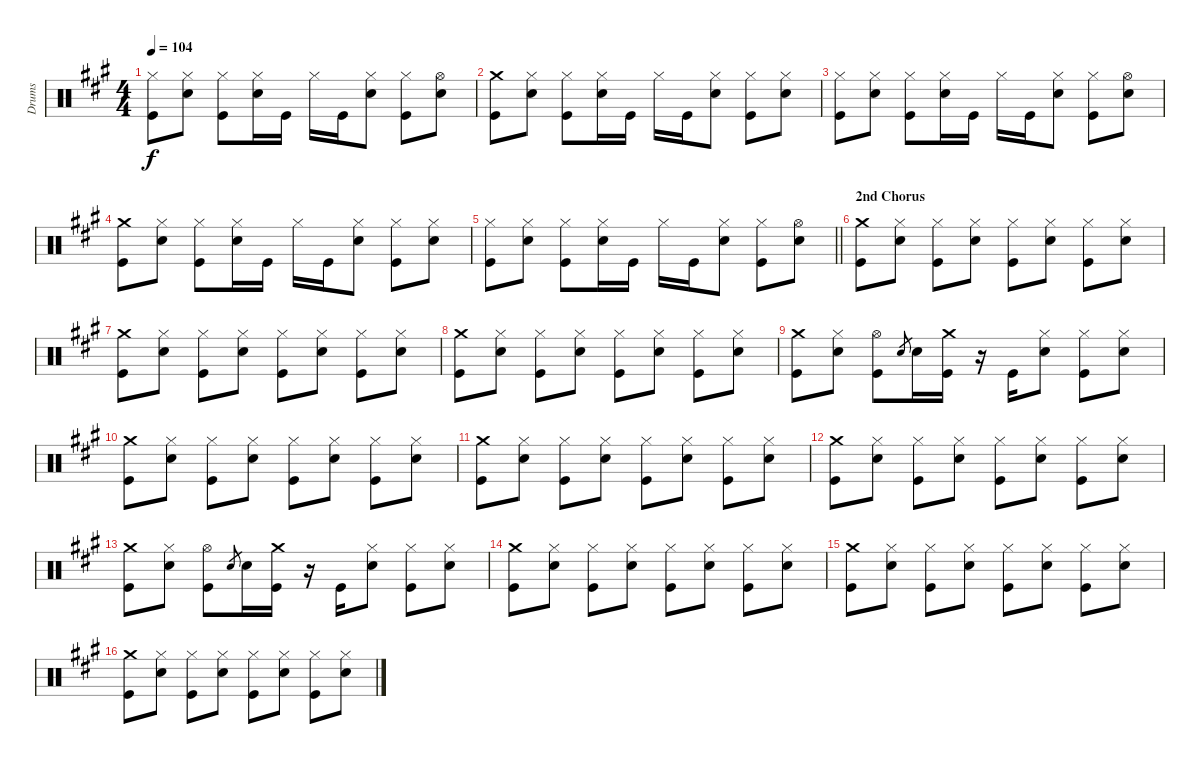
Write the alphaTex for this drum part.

\track ("Drums" "Drums") {instrument percussion}
\staff {score}
\articulation defaults
\ts (4 4)
\tempo 104
\clef neutral
\ks a
("Hi-Hat (closed)" "Kick (hit)").8{dy f} ("Hi-Hat (closed)" "Electric Snare (hit)").8 ("Hi-Hat (closed)" "Kick (hit)").8 ("Hi-Hat (closed)" "Electric Snare (hit)").16 "Kick (hit)".16 "Hi-Hat (closed)".16 "Kick (hit)".16 ("Hi-Hat (closed)" "Electric Snare (hit)").8 ("Hi-Hat (closed)" "Kick (hit)").8 ("Hi-Hat (open)" "Electric Snare (hit)").8 |
("Crash medium (hit)" "Kick (hit)").8 ("Hi-Hat (closed)" "Electric Snare (hit)").8 ("Hi-Hat (closed)" "Kick (hit)").8 ("Hi-Hat (closed)" "Electric Snare (hit)").16 "Kick (hit)".16 "Hi-Hat (closed)".16 "Kick (hit)".16 ("Hi-Hat (closed)" "Electric Snare (hit)").8 ("Hi-Hat (closed)" "Kick (hit)").8 ("Hi-Hat (closed)" "Electric Snare (hit)").8 |
("Hi-Hat (closed)" "Kick (hit)").8 ("Hi-Hat (closed)" "Electric Snare (hit)").8 ("Hi-Hat (closed)" "Kick (hit)").8 ("Hi-Hat (closed)" "Electric Snare (hit)").16 "Kick (hit)".16 "Hi-Hat (closed)".16 "Kick (hit)".16 ("Hi-Hat (closed)" "Electric Snare (hit)").8 ("Hi-Hat (closed)" "Kick (hit)").8 ("Hi-Hat (open)" "Electric Snare (hit)").8 |
("Crash medium (hit)" "Kick (hit)").8 ("Hi-Hat (closed)" "Electric Snare (hit)").8 ("Hi-Hat (closed)" "Kick (hit)").8 ("Hi-Hat (closed)" "Electric Snare (hit)").16 "Kick (hit)".16 "Hi-Hat (closed)".16 "Kick (hit)".16 ("Hi-Hat (closed)" "Electric Snare (hit)").8 ("Hi-Hat (closed)" "Kick (hit)").8 ("Hi-Hat (closed)" "Electric Snare (hit)").8 |
\barLineRight lightlight
("Hi-Hat (closed)" "Kick (hit)").8 ("Hi-Hat (closed)" "Electric Snare (hit)").8 ("Hi-Hat (closed)" "Kick (hit)").8 ("Hi-Hat (closed)" "Electric Snare (hit)").16 "Kick (hit)".16 "Hi-Hat (closed)".16 "Kick (hit)".16 ("Hi-Hat (closed)" "Electric Snare (hit)").8 ("Hi-Hat (closed)" "Kick (hit)").8 ("Hi-Hat (open)" "Electric Snare (hit)").8 |
\section ("" "2nd Chorus")
("Crash medium (hit)" "Kick (hit)").8 ("Hi-Hat (closed)" "Electric Snare (hit)").8 ("Hi-Hat (closed)" "Kick (hit)").8 ("Hi-Hat (closed)" "Electric Snare (hit)").8 ("Hi-Hat (closed)" "Kick (hit)").8 ("Hi-Hat (closed)" "Electric Snare (hit)").8 ("Hi-Hat (closed)" "Kick (hit)").8 ("Hi-Hat (closed)" "Electric Snare (hit)").8 |
("Crash medium (hit)" "Kick (hit)").8 ("Hi-Hat (closed)" "Electric Snare (hit)").8 ("Hi-Hat (closed)" "Kick (hit)").8 ("Hi-Hat (closed)" "Electric Snare (hit)").8 ("Hi-Hat (closed)" "Kick (hit)").8 ("Hi-Hat (closed)" "Electric Snare (hit)").8 ("Hi-Hat (closed)" "Kick (hit)").8 ("Hi-Hat (closed)" "Electric Snare (hit)").8 |
("Crash medium (hit)" "Kick (hit)").8 ("Hi-Hat (closed)" "Electric Snare (hit)").8 ("Hi-Hat (closed)" "Kick (hit)").8 ("Hi-Hat (closed)" "Electric Snare (hit)").8 ("Hi-Hat (closed)" "Kick (hit)").8 ("Hi-Hat (closed)" "Electric Snare (hit)").8 ("Hi-Hat (closed)" "Kick (hit)").8 ("Hi-Hat (closed)" "Electric Snare (hit)").8 |
("Crash medium (hit)" "Kick (hit)").8 ("Hi-Hat (closed)" "Electric Snare (hit)").8 ("Hi-Hat (open)" "Kick (hit)").8 "Electric Snare (hit)".8{gr} "Electric Snare (hit)".16 ("Crash medium (hit)" "Kick (hit)").16 r.16 "Kick (hit)".16 ("Hi-Hat (closed)" "Electric Snare (hit)").8 ("Hi-Hat (closed)" "Kick (hit)").8 ("Hi-Hat (closed)" "Electric Snare (hit)").8 |
("Crash medium (hit)" "Kick (hit)").8 ("Hi-Hat (closed)" "Electric Snare (hit)").8 ("Hi-Hat (closed)" "Kick (hit)").8 ("Hi-Hat (closed)" "Electric Snare (hit)").8 ("Hi-Hat (closed)" "Kick (hit)").8 ("Hi-Hat (closed)" "Electric Snare (hit)").8 ("Hi-Hat (closed)" "Kick (hit)").8 ("Hi-Hat (closed)" "Electric Snare (hit)").8 |
("Crash medium (hit)" "Kick (hit)").8 ("Hi-Hat (closed)" "Electric Snare (hit)").8 ("Hi-Hat (closed)" "Kick (hit)").8 ("Hi-Hat (closed)" "Electric Snare (hit)").8 ("Hi-Hat (closed)" "Kick (hit)").8 ("Hi-Hat (closed)" "Electric Snare (hit)").8 ("Hi-Hat (closed)" "Kick (hit)").8 ("Hi-Hat (closed)" "Electric Snare (hit)").8 |
("Crash medium (hit)" "Kick (hit)").8 ("Hi-Hat (closed)" "Electric Snare (hit)").8 ("Hi-Hat (closed)" "Kick (hit)").8 ("Hi-Hat (closed)" "Electric Snare (hit)").8 ("Hi-Hat (closed)" "Kick (hit)").8 ("Hi-Hat (closed)" "Electric Snare (hit)").8 ("Hi-Hat (closed)" "Kick (hit)").8 ("Hi-Hat (closed)" "Electric Snare (hit)").8 |
("Crash medium (hit)" "Kick (hit)").8 ("Hi-Hat (closed)" "Electric Snare (hit)").8 ("Hi-Hat (open)" "Kick (hit)").8 "Electric Snare (hit)".8{gr} "Electric Snare (hit)".16 ("Crash medium (hit)" "Kick (hit)").16 r.16 "Kick (hit)".16 ("Hi-Hat (closed)" "Electric Snare (hit)").8 ("Hi-Hat (closed)" "Kick (hit)").8 ("Hi-Hat (closed)" "Electric Snare (hit)").8 |
("Crash medium (hit)" "Kick (hit)").8 ("Hi-Hat (closed)" "Electric Snare (hit)").8 ("Hi-Hat (closed)" "Kick (hit)").8 ("Hi-Hat (closed)" "Electric Snare (hit)").8 ("Hi-Hat (closed)" "Kick (hit)").8 ("Hi-Hat (closed)" "Electric Snare (hit)").8 ("Hi-Hat (closed)" "Kick (hit)").8 ("Hi-Hat (closed)" "Electric Snare (hit)").8 |
("Crash medium (hit)" "Kick (hit)").8 ("Hi-Hat (closed)" "Electric Snare (hit)").8 ("Hi-Hat (closed)" "Kick (hit)").8 ("Hi-Hat (closed)" "Electric Snare (hit)").8 ("Hi-Hat (closed)" "Kick (hit)").8 ("Hi-Hat (closed)" "Electric Snare (hit)").8 ("Hi-Hat (closed)" "Kick (hit)").8 ("Hi-Hat (closed)" "Electric Snare (hit)").8 |
("Crash medium (hit)" "Kick (hit)").8 ("Hi-Hat (closed)" "Electric Snare (hit)").8 ("Hi-Hat (closed)" "Kick (hit)").8 ("Hi-Hat (closed)" "Electric Snare (hit)").8 ("Hi-Hat (closed)" "Kick (hit)").8 ("Hi-Hat (closed)" "Electric Snare (hit)").8 ("Hi-Hat (closed)" "Kick (hit)").8 ("Hi-Hat (closed)" "Electric Snare (hit)").8
